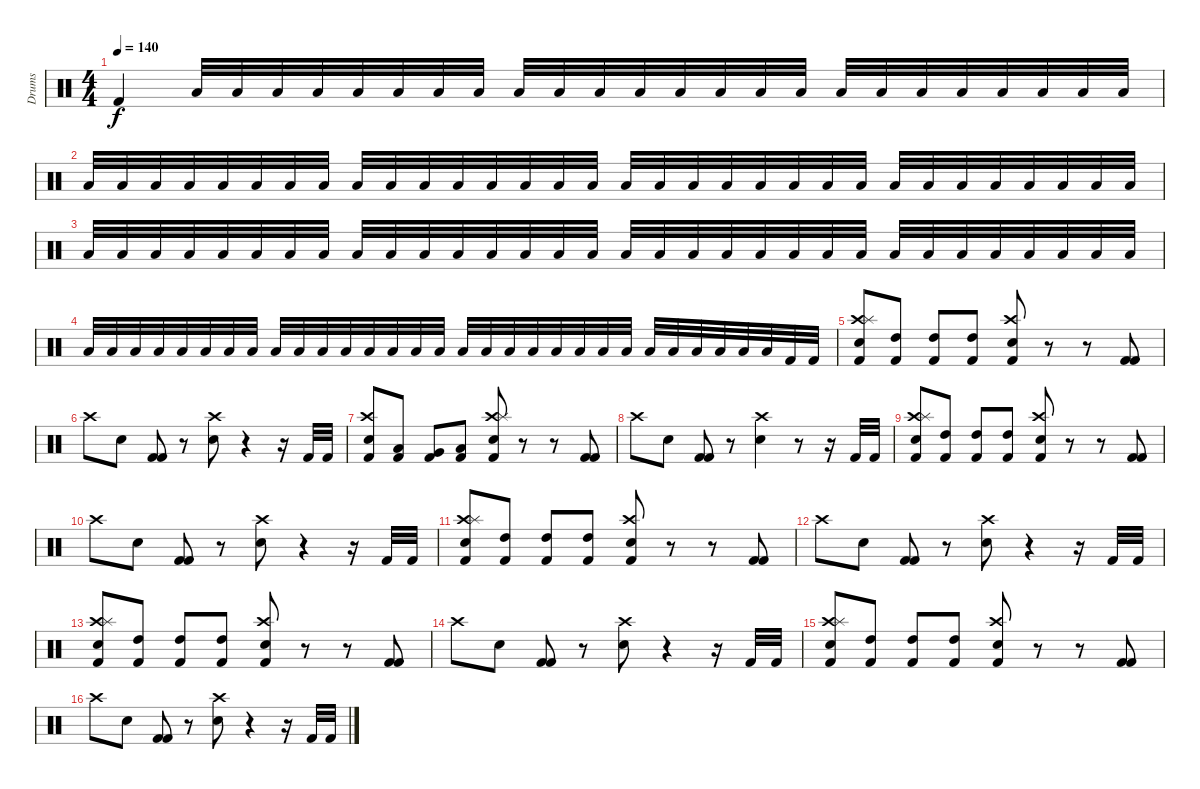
\track ("Drums" "Drums") {instrument percussion}
\staff {score}
\articulation defaults
\ts (4 4)
\tempo 140
\clef neutral
\ks c "Kick (hit) 2".4{dy f volume 0} "Low Floor Tom (hit)".32{volume 16} "Low Floor Tom (hit)".32 "Low Floor Tom (hit)".32 "Low Floor Tom (hit)".32 "Low Floor Tom (hit)".32 "Low Floor Tom (hit)".32 "Low Floor Tom (hit)".32 "Low Floor Tom (hit)".32 "Low Floor Tom (hit)".32 "Low Floor Tom (hit)".32 "Low Floor Tom (hit)".32 "Low Floor Tom (hit)".32 "Low Floor Tom (hit)".32 "Low Floor Tom (hit)".32 "Low Floor Tom (hit)".32 "Low Floor Tom (hit)".32 "Low Floor Tom (hit)".32 "Low Floor Tom (hit)".32 "Low Floor Tom (hit)".32 "Low Floor Tom (hit)".32 "Low Floor Tom (hit)".32 "Low Floor Tom (hit)".32 "Low Floor Tom (hit)".32 "Low Floor Tom (hit)".32
|
"Low Floor Tom (hit)".32 "Low Floor Tom (hit)".32 "Low Floor Tom (hit)".32 "Low Floor Tom (hit)".32 "Low Floor Tom (hit)".32 "Low Floor Tom (hit)".32 "Low Floor Tom (hit)".32 "Low Floor Tom (hit)".32 "Low Floor Tom (hit)".32 "Low Floor Tom (hit)".32 "Low Floor Tom (hit)".32 "Low Floor Tom (hit)".32 "Low Floor Tom (hit)".32 "Low Floor Tom (hit)".32 "Low Floor Tom (hit)".32 "Low Floor Tom (hit)".32 "Low Floor Tom (hit)".32 "Low Floor Tom (hit)".32 "Low Floor Tom (hit)".32 "Low Floor Tom (hit)".32 "Low Floor Tom (hit)".32 "Low Floor Tom (hit)".32 "Low Floor Tom (hit)".32 "Low Floor Tom (hit)".32 "Low Floor Tom (hit)".32 "Low Floor Tom (hit)".32 "Low Floor Tom (hit)".32 "Low Floor Tom (hit)".32 "Low Floor Tom (hit)".32 "Low Floor Tom (hit)".32 "Low Floor Tom (hit)".32 "Low Floor Tom (hit)".32 |
"Low Floor Tom (hit)".32 "Low Floor Tom (hit)".32 "Low Floor Tom (hit)".32 "Low Floor Tom (hit)".32 "Low Floor Tom (hit)".32 "Low Floor Tom (hit)".32 "Low Floor Tom (hit)".32 "Low Floor Tom (hit)".32 "Low Floor Tom (hit)".32 "Low Floor Tom (hit)".32 "Low Floor Tom (hit)".32 "Low Floor Tom (hit)".32 "Low Floor Tom (hit)".32 "Low Floor Tom (hit)".32 "Low Floor Tom (hit)".32 "Low Floor Tom (hit)".32 "Low Floor Tom (hit)".32 "Low Floor Tom (hit)".32 "Low Floor Tom (hit)".32 "Low Floor Tom (hit)".32 "Low Floor Tom (hit)".32 "Low Floor Tom (hit)".32 "Low Floor Tom (hit)".32 "Low Floor Tom (hit)".32 "Low Floor Tom (hit)".32 "Low Floor Tom (hit)".32 "Low Floor Tom (hit)".32 "Low Floor Tom (hit)".32 "Low Floor Tom (hit)".32 "Low Floor Tom (hit)".32 "Low Floor Tom (hit)".32 "Low Floor Tom (hit)".32 |
"Low Floor Tom (hit)".32 "Low Floor Tom (hit)".32 "Low Floor Tom (hit)".32 "Low Floor Tom (hit)".32 "Low Floor Tom (hit)".32 "Low Floor Tom (hit)".32 "Low Floor Tom (hit)".32 "Low Floor Tom (hit)".32 "Low Floor Tom (hit)".32 "Low Floor Tom (hit)".32 "Low Floor Tom (hit)".32 "Low Floor Tom (hit)".32 "Low Floor Tom (hit)".32 "Low Floor Tom (hit)".32 "Low Floor Tom (hit)".32 "Low Floor Tom (hit)".32 "Low Floor Tom (hit)".32 "Low Floor Tom (hit)".32 "Low Floor Tom (hit)".32 "Low Floor Tom (hit)".32 "Low Floor Tom (hit)".32 "Low Floor Tom (hit)".32 "Low Floor Tom (hit)".32 "Low Floor Tom (hit)".32 "Low Floor Tom (hit)".32 "Low Floor Tom (hit)".32 "Low Floor Tom (hit)".32 "Low Floor Tom (hit)".32 "Low Floor Tom (hit)".32 "Low Floor Tom (hit)".32 "Kick (hit) 2".32 "Kick (hit) 2".32 |
("Crash high (hit)" "Splash (hit)" "Electric Snare (hit)" "Kick (hit) 2").8 ("High Tom (hit)" "Kick (hit) 2").8 ("High Tom (hit)" "Kick (hit) 2").8 ("High Tom (hit)" "Kick (hit) 2").8 ("Crash high (hit)" "Electric Snare (hit)" "Kick (hit) 2").8 r.8 r.8 ("Kick (hit) 2" "Kick (hit) 2").8 |
"Crash high (hit)".8 "Electric Snare (hit)".8 ("Kick (hit) 2" "Kick (hit) 2").8 r.8 ("Crash high (hit)" "Electric Snare (hit)").8 r.4 r.16 "Kick (hit) 2".32 "Kick (hit) 2".32 |
("Crash high (hit)" "Electric Snare (hit)" "Kick (hit) 2").8 ("Low Tom (hit)" "Kick (hit) 2").8 ("Very Low Tom (hit)" "Kick (hit) 2").8 ("Low Floor Tom (hit)" "Kick (hit) 2").8 ("Crash high (hit)" "Splash (hit)" "Electric Snare (hit)" "Kick (hit) 2").8 r.8 r.8 ("Kick (hit) 2" "Kick (hit) 2").8 |
"Crash high (hit)".8 "Electric Snare (hit)".8 ("Kick (hit) 2" "Kick (hit) 2").8 r.8 ("Crash high (hit)" "Electric Snare (hit)").4 r.8 r.16 "Kick (hit) 2".32 "Kick (hit) 2".32 |
("Crash high (hit)" "Splash (hit)" "Electric Snare (hit)" "Kick (hit) 2").8 ("High Tom (hit)" "Kick (hit) 2").8 ("High Tom (hit)" "Kick (hit) 2").8 ("High Tom (hit)" "Kick (hit) 2").8 ("Crash high (hit)" "Electric Snare (hit)" "Kick (hit) 2").8 r.8 r.8 ("Kick (hit) 2" "Kick (hit) 2").8 |
"Crash high (hit)".8 "Electric Snare (hit)".8 ("Kick (hit) 2" "Kick (hit) 2").8 r.8 ("Crash high (hit)" "Electric Snare (hit)").8 r.4 r.16 "Kick (hit) 2".32 "Kick (hit) 2".32 |
("Crash high (hit)" "Splash (hit)" "Electric Snare (hit)" "Kick (hit) 2").8 ("High Tom (hit)" "Kick (hit) 2").8 ("High Tom (hit)" "Kick (hit) 2").8 ("High Tom (hit)" "Kick (hit) 2").8 ("Crash high (hit)" "Electric Snare (hit)" "Kick (hit) 2").8 r.8 r.8 ("Kick (hit) 2" "Kick (hit) 2").8 |
"Crash high (hit)".8 "Electric Snare (hit)".8 ("Kick (hit) 2" "Kick (hit) 2").8 r.8 ("Crash high (hit)" "Electric Snare (hit)").8 r.4 r.16 "Kick (hit) 2".32 "Kick (hit) 2".32 |
("Crash high (hit)" "Splash (hit)" "Electric Snare (hit)" "Kick (hit) 2").8 ("High Tom (hit)" "Kick (hit) 2").8 ("High Tom (hit)" "Kick (hit) 2").8 ("High Tom (hit)" "Kick (hit) 2").8 ("Crash high (hit)" "Electric Snare (hit)" "Kick (hit) 2").8 r.8 r.8 ("Kick (hit) 2" "Kick (hit) 2").8 |
"Crash high (hit)".8 "Electric Snare (hit)".8 ("Kick (hit) 2" "Kick (hit) 2").8 r.8 ("Crash high (hit)" "Electric Snare (hit)").8 r.4 r.16 "Kick (hit) 2".32 "Kick (hit) 2".32 |
("Crash high (hit)" "Splash (hit)" "Electric Snare (hit)" "Kick (hit) 2").8 ("High Tom (hit)" "Kick (hit) 2").8 ("High Tom (hit)" "Kick (hit) 2").8 ("High Tom (hit)" "Kick (hit) 2").8 ("Crash high (hit)" "Electric Snare (hit)" "Kick (hit) 2").8 r.8 r.8 ("Kick (hit) 2" "Kick (hit) 2").8 |
"Crash high (hit)".8 "Electric Snare (hit)".8 ("Kick (hit) 2" "Kick (hit) 2").8 r.8 ("Crash high (hit)" "Electric Snare (hit)").8 r.4 r.16 "Kick (hit) 2".32 "Kick (hit) 2".32
